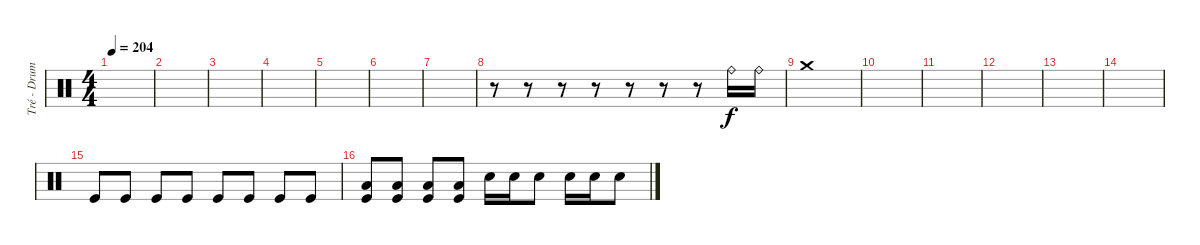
\track ("Tré - Drums" "Tré - Drum") {instrument percussion}
\staff {score}
\articulation defaults
\ts (4 4)
\tempo 204
\clef neutral
\ks c
|
|
|
|
|
|
|
r.8 r.8 r.8 r.8 r.8 r.8 r.8 "Ride (bell)".16 "Ride (bell)".16 |
"Crash medium (hit)".1 |
|
|
|
|
|
"Kick (hit)".8 "Kick (hit)".8 "Kick (hit)".8 "Kick (hit)".8 "Kick (hit)".8 "Kick (hit)".8 "Kick (hit)".8 "Kick (hit)".8 |
("Kick (hit)" "Low Floor Tom (hit)").8 ("Kick (hit)" "Low Floor Tom (hit)").8 ("Kick (hit)" "Low Floor Tom (hit)").8 ("Kick (hit)" "Low Floor Tom (hit)").8 "Electric Snare (hit)".16 "Electric Snare (hit)".16 "Electric Snare (hit)".8 "Electric Snare (hit)".16 "Electric Snare (hit)".16 "Electric Snare (hit)".8
